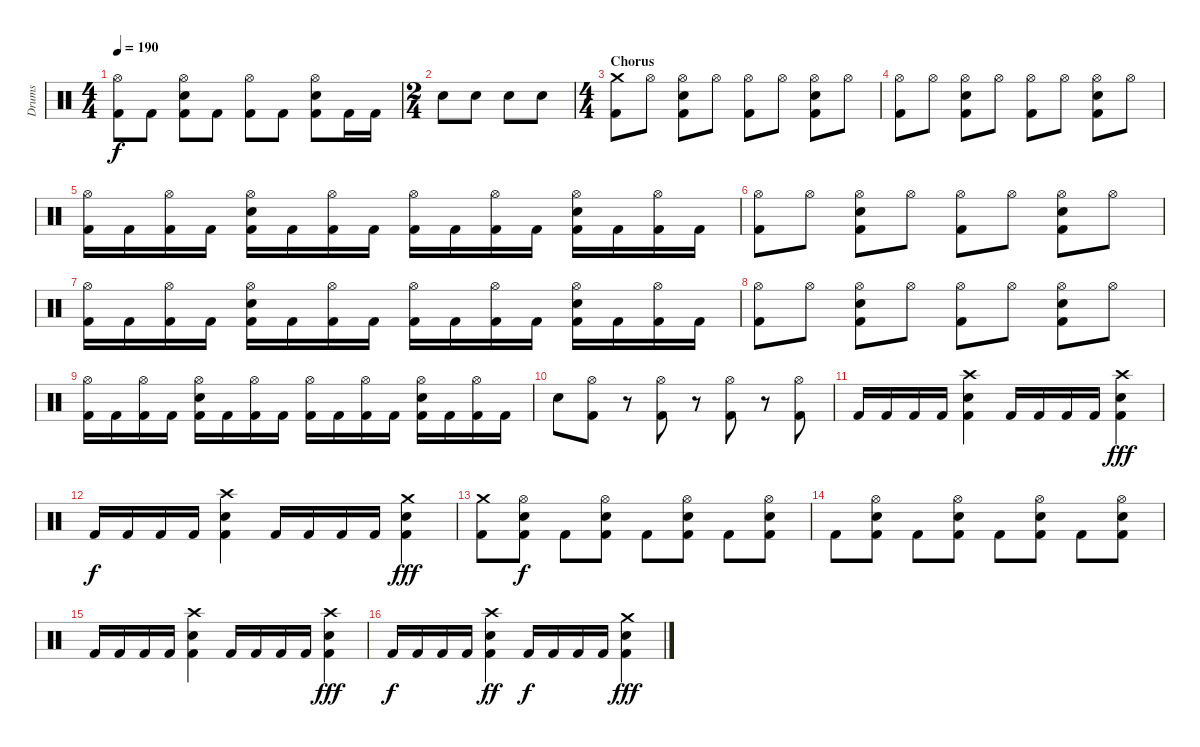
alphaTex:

\track ("Drums" "Drums") {instrument percussion}
\staff {score}
\articulation defaults
\ts (4 4)
\tempo 190
\clef neutral
\ks c
("Hi-Hat (open)" "Kick (hit) 2").8{dy f} "Kick (hit) 2".8 ("Hi-Hat (open)" "Snare (hit) 2" "Kick (hit) 2").8 "Kick (hit) 2".8 ("Hi-Hat (open)" "Kick (hit) 2").8 "Kick (hit) 2".8 ("Hi-Hat (open)" "Snare (hit) 2" "Kick (hit) 2").8 "Kick (hit) 2".16 "Kick (hit) 2".16 |
\ts (2 4)
"Snare (hit) 2".8 "Snare (hit) 2".8 "Snare (hit) 2".8 "Snare (hit) 2".8 |
\ts (4 4)
\section ("" "Chorus")
("Crash medium (hit)" "Kick (hit) 2").8 "Hi-Hat (open)".8 ("Hi-Hat (open)" "Snare (hit) 2" "Kick (hit) 2").8 "Hi-Hat (open)".8 ("Hi-Hat (open)" "Kick (hit) 2").8 "Hi-Hat (open)".8 ("Hi-Hat (open)" "Snare (hit) 2" "Kick (hit) 2").8 "Hi-Hat (open)".8 |
("Hi-Hat (open)" "Kick (hit) 2").8 "Hi-Hat (open)".8 ("Hi-Hat (open)" "Snare (hit) 2" "Kick (hit) 2").8 "Hi-Hat (open)".8 ("Hi-Hat (open)" "Kick (hit) 2").8 "Hi-Hat (open)".8 ("Hi-Hat (open)" "Snare (hit) 2" "Kick (hit) 2").8 "Hi-Hat (open)".8 |
("Hi-Hat (open)" "Kick (hit) 2").16 "Kick (hit) 2".16 ("Hi-Hat (open)" "Kick (hit) 2").16 "Kick (hit) 2".16 ("Hi-Hat (open)" "Snare (hit) 2" "Kick (hit) 2").16 "Kick (hit) 2".16 ("Hi-Hat (open)" "Kick (hit) 2").16 "Kick (hit) 2".16 ("Hi-Hat (open)" "Kick (hit) 2").16 "Kick (hit) 2".16 ("Hi-Hat (open)" "Kick (hit) 2").16 "Kick (hit) 2".16 ("Hi-Hat (open)" "Snare (hit) 2" "Kick (hit) 2").16 "Kick (hit) 2".16 ("Hi-Hat (open)" "Kick (hit) 2").16 "Kick (hit) 2".16 |
("Hi-Hat (open)" "Kick (hit) 2").8 "Hi-Hat (open)".8 ("Hi-Hat (open)" "Snare (hit) 2" "Kick (hit) 2").8 "Hi-Hat (open)".8 ("Hi-Hat (open)" "Kick (hit) 2").8 "Hi-Hat (open)".8 ("Hi-Hat (open)" "Snare (hit) 2" "Kick (hit) 2").8 "Hi-Hat (open)".8 |
("Hi-Hat (open)" "Kick (hit) 2").16 "Kick (hit) 2".16 ("Hi-Hat (open)" "Kick (hit) 2").16 "Kick (hit) 2".16 ("Hi-Hat (open)" "Snare (hit) 2" "Kick (hit) 2").16 "Kick (hit) 2".16 ("Hi-Hat (open)" "Kick (hit) 2").16 "Kick (hit) 2".16 ("Hi-Hat (open)" "Kick (hit) 2").16 "Kick (hit) 2".16 ("Hi-Hat (open)" "Kick (hit) 2").16 "Kick (hit) 2".16 ("Hi-Hat (open)" "Snare (hit) 2" "Kick (hit) 2").16 "Kick (hit) 2".16 ("Hi-Hat (open)" "Kick (hit) 2").16 "Kick (hit) 2".16 |
("Hi-Hat (open)" "Kick (hit) 2").8 "Hi-Hat (open)".8 ("Hi-Hat (open)" "Snare (hit) 2" "Kick (hit) 2").8 "Hi-Hat (open)".8 ("Hi-Hat (open)" "Kick (hit) 2").8 "Hi-Hat (open)".8 ("Hi-Hat (open)" "Snare (hit) 2" "Kick (hit) 2").8 "Hi-Hat (open)".8 |
("Hi-Hat (open)" "Kick (hit) 2").16 "Kick (hit) 2".16 ("Hi-Hat (open)" "Kick (hit) 2").16 "Kick (hit) 2".16 ("Hi-Hat (open)" "Snare (hit) 2" "Kick (hit) 2").16 "Kick (hit) 2".16 ("Hi-Hat (open)" "Kick (hit) 2").16 "Kick (hit) 2".16 ("Hi-Hat (open)" "Kick (hit) 2").16 "Kick (hit) 2".16 ("Hi-Hat (open)" "Kick (hit) 2").16 "Kick (hit) 2".16 ("Hi-Hat (open)" "Snare (hit) 2" "Kick (hit) 2").16 "Kick (hit) 2".16 ("Hi-Hat (open)" "Kick (hit) 2").16 "Kick (hit) 2".16 |
"Snare (hit) 2".8 ("Hi-Hat (open)" "Kick (hit) 2").8 r.8 ("Hi-Hat (open)" "Kick (hit) 2").8 r.8 ("Hi-Hat (open)" "Kick (hit) 2").8 r.8 ("Hi-Hat (open)" "Kick (hit) 2").8 |
"Kick (hit) 2".16 "Kick (hit) 2".16 "Kick (hit) 2".16 "Kick (hit) 2".16 ("Crash high (hit)" "Snare (hit) 2" "Kick (hit) 2").4 "Kick (hit) 2".16 "Kick (hit) 2".16 "Kick (hit) 2".16 "Kick (hit) 2".16 ("Crash high (hit)" "Snare (hit) 2" "Kick (hit) 2").4{dy fff} |
"Kick (hit) 2".16{dy f} "Kick (hit) 2".16 "Kick (hit) 2".16 "Kick (hit) 2".16 ("Crash high (hit)" "Snare (hit) 2" "Kick (hit) 2").4 "Kick (hit) 2".16 "Kick (hit) 2".16 "Kick (hit) 2".16 "Kick (hit) 2".16 ("Crash medium (hit)" "Snare (hit) 2" "Kick (hit) 2").4{dy fff} |
("Crash medium (hit)" "Kick (hit) 2").8 ("Hi-Hat (open)" "Snare (hit) 2" "Kick (hit) 2").8{dy f} "Kick (hit) 2".8 ("Hi-Hat (open)" "Snare (hit) 2" "Kick (hit) 2").8 "Kick (hit) 2".8 ("Hi-Hat (open)" "Snare (hit) 2" "Kick (hit) 2").8 "Kick (hit) 2".8 ("Hi-Hat (open)" "Snare (hit) 2" "Kick (hit) 2").8 |
"Kick (hit) 2".8 ("Hi-Hat (open)" "Snare (hit) 2" "Kick (hit) 2").8 "Kick (hit) 2".8 ("Hi-Hat (open)" "Snare (hit) 2" "Kick (hit) 2").8 "Kick (hit) 2".8 ("Hi-Hat (open)" "Snare (hit) 2" "Kick (hit) 2").8 "Kick (hit) 2".8 ("Hi-Hat (open)" "Snare (hit) 2" "Kick (hit) 2").8 |
"Kick (hit) 2".16 "Kick (hit) 2".16 "Kick (hit) 2".16 "Kick (hit) 2".16 ("Crash high (hit)" "Snare (hit) 2" "Kick (hit) 2").4 "Kick (hit) 2".16 "Kick (hit) 2".16 "Kick (hit) 2".16 "Kick (hit) 2".16 ("Crash high (hit)" "Snare (hit) 2" "Kick (hit) 2").4{dy fff} |
"Kick (hit) 2".16{dy f} "Kick (hit) 2".16 "Kick (hit) 2".16 "Kick (hit) 2".16 ("Crash high (hit)" "Snare (hit) 2" "Kick (hit) 2").4{dy ff} "Kick (hit) 2".16{dy f} "Kick (hit) 2".16 "Kick (hit) 2".16 "Kick (hit) 2".16 ("Crash medium (hit)" "Snare (hit) 2" "Kick (hit) 2").4{dy fff}
